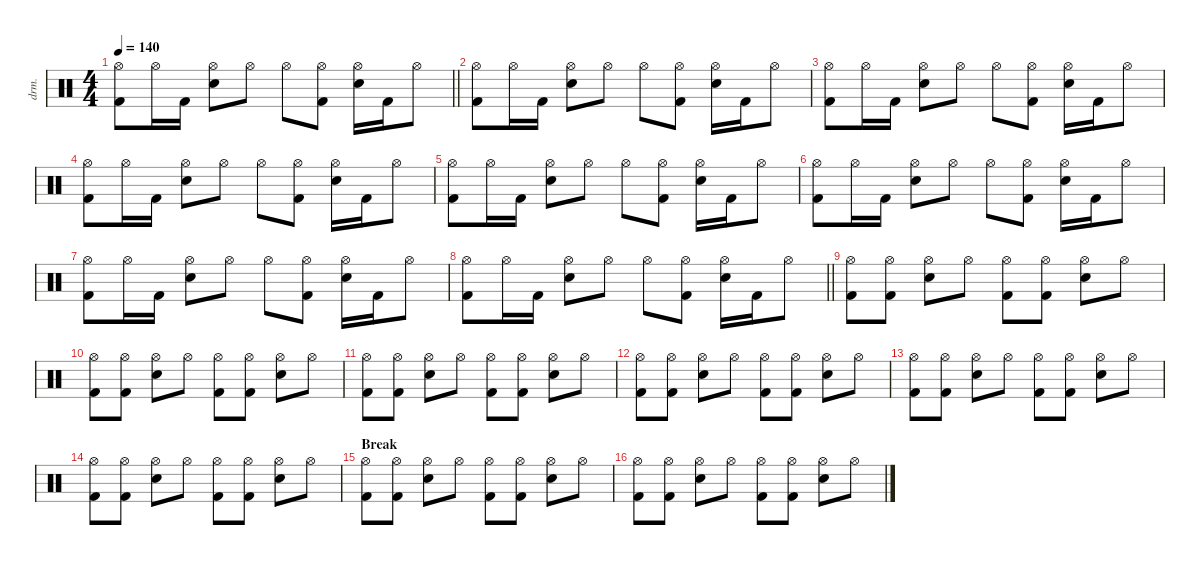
\defaultSystemsLayout 4
\hideDynamics
\bracketExtendMode nobrackets
\otherSystemsTrackNameOrientation horizontal
\track ("Drums" "drm.") {defaultSystemsLayout 4 instrument percussion}
\staff {score}
\articulation defaults
\ts (4 4)
\tempo 140
\clef neutral
\barLineRight lightlight
\ks c
("Hi-Hat (open)" "Kick (hit) 2").8{dy mf beam Down} "Hi-Hat (open)".16{beam Down} "Kick (hit) 2".16{dy f beam Down} ("Hi-Hat (open)" "Snare (hit) 2").8{dy mf beam Down} "Hi-Hat (open)".8{beam Down} "Hi-Hat (open)".8{beam Down} ("Hi-Hat (open)" "Kick (hit) 2").8{beam Down} ("Hi-Hat (open)" "Snare (hit) 2").16{beam Down} "Kick (hit) 2".16{dy f beam Down} "Hi-Hat (open)".8{dy mf beam Down} |
("Hi-Hat (open)" "Kick (hit) 2").8{beam Down} "Hi-Hat (open)".16{beam Down} "Kick (hit) 2".16{dy f beam Down} ("Hi-Hat (open)" "Snare (hit) 2").8{dy mf beam Down} "Hi-Hat (open)".8{beam Down} "Hi-Hat (open)".8{beam Down} ("Hi-Hat (open)" "Kick (hit) 2").8{beam Down} ("Hi-Hat (open)" "Snare (hit) 2").16{beam Down} "Kick (hit) 2".16{dy f beam Down} "Hi-Hat (open)".8{dy mf beam Down} |
("Hi-Hat (open)" "Kick (hit) 2").8{beam Down} "Hi-Hat (open)".16{beam Down} "Kick (hit) 2".16{dy f beam Down} ("Hi-Hat (open)" "Snare (hit) 2").8{dy mf beam Down} "Hi-Hat (open)".8{beam Down} "Hi-Hat (open)".8{beam Down} ("Hi-Hat (open)" "Kick (hit) 2").8{beam Down} ("Hi-Hat (open)" "Snare (hit) 2").16{beam Down} "Kick (hit) 2".16{dy f beam Down} "Hi-Hat (open)".8{dy mf beam Down} |
("Hi-Hat (open)" "Kick (hit) 2").8{beam Down} "Hi-Hat (open)".16{beam Down} "Kick (hit) 2".16{dy f beam Down} ("Hi-Hat (open)" "Snare (hit) 2").8{dy mf beam Down} "Hi-Hat (open)".8{beam Down} "Hi-Hat (open)".8{beam Down} ("Hi-Hat (open)" "Kick (hit) 2").8{beam Down} ("Hi-Hat (open)" "Snare (hit) 2").16{beam Down} "Kick (hit) 2".16{dy f beam Down} "Hi-Hat (open)".8{dy mf beam Down} |
("Hi-Hat (open)" "Kick (hit) 2").8{beam Down} "Hi-Hat (open)".16{beam Down} "Kick (hit) 2".16{dy f beam Down} ("Hi-Hat (open)" "Snare (hit) 2").8{dy mf beam Down} "Hi-Hat (open)".8{beam Down} "Hi-Hat (open)".8{beam Down} ("Hi-Hat (open)" "Kick (hit) 2").8{beam Down} ("Hi-Hat (open)" "Snare (hit) 2").16{beam Down} "Kick (hit) 2".16{dy f beam Down} "Hi-Hat (open)".8{dy mf beam Down} |
("Hi-Hat (open)" "Kick (hit) 2").8{beam Down} "Hi-Hat (open)".16{beam Down} "Kick (hit) 2".16{dy f beam Down} ("Hi-Hat (open)" "Snare (hit) 2").8{dy mf beam Down} "Hi-Hat (open)".8{beam Down} "Hi-Hat (open)".8{beam Down} ("Hi-Hat (open)" "Kick (hit) 2").8{beam Down} ("Hi-Hat (open)" "Snare (hit) 2").16{beam Down} "Kick (hit) 2".16{dy f beam Down} "Hi-Hat (open)".8{dy mf beam Down} |
("Hi-Hat (open)" "Kick (hit) 2").8{beam Down} "Hi-Hat (open)".16{beam Down} "Kick (hit) 2".16{dy f beam Down} ("Hi-Hat (open)" "Snare (hit) 2").8{dy mf beam Down} "Hi-Hat (open)".8{beam Down} "Hi-Hat (open)".8{beam Down} ("Hi-Hat (open)" "Kick (hit) 2").8{beam Down} ("Hi-Hat (open)" "Snare (hit) 2").16{beam Down} "Kick (hit) 2".16{dy f beam Down} "Hi-Hat (open)".8{dy mf beam Down} |
\barLineRight lightlight
("Hi-Hat (open)" "Kick (hit) 2").8{beam Down} "Hi-Hat (open)".16{beam Down} "Kick (hit) 2".16{dy f beam Down} ("Hi-Hat (open)" "Snare (hit) 2").8{dy mf beam Down} "Hi-Hat (open)".8{beam Down} "Hi-Hat (open)".8{beam Down} ("Hi-Hat (open)" "Kick (hit) 2").8{beam Down} ("Hi-Hat (open)" "Snare (hit) 2").16{beam Down} "Kick (hit) 2".16{dy f beam Down} "Hi-Hat (open)".8{dy mf beam Down} |
("Hi-Hat (open)" "Kick (hit) 2").8{beam Down} ("Hi-Hat (open)" "Kick (hit) 2").8{beam Down} ("Hi-Hat (open)" "Snare (hit) 2").8{beam Down} "Hi-Hat (open)".8{beam Down} ("Hi-Hat (open)" "Kick (hit) 2").8{beam Down} ("Hi-Hat (open)" "Kick (hit) 2").8{beam Down} ("Hi-Hat (open)" "Snare (hit) 2").8{beam Down} "Hi-Hat (open)".8{beam Down} |
("Hi-Hat (open)" "Kick (hit) 2").8{beam Down} ("Hi-Hat (open)" "Kick (hit) 2").8{beam Down} ("Hi-Hat (open)" "Snare (hit) 2").8{beam Down} "Hi-Hat (open)".8{beam Down} ("Hi-Hat (open)" "Kick (hit) 2").8{beam Down} ("Hi-Hat (open)" "Kick (hit) 2").8{beam Down} ("Hi-Hat (open)" "Snare (hit) 2").8{beam Down} "Hi-Hat (open)".8{beam Down} |
("Hi-Hat (open)" "Kick (hit) 2").8{beam Down} ("Hi-Hat (open)" "Kick (hit) 2").8{beam Down} ("Hi-Hat (open)" "Snare (hit) 2").8{beam Down} "Hi-Hat (open)".8{beam Down} ("Hi-Hat (open)" "Kick (hit) 2").8{beam Down} ("Hi-Hat (open)" "Kick (hit) 2").8{beam Down} ("Hi-Hat (open)" "Snare (hit) 2").8{beam Down} "Hi-Hat (open)".8{beam Down} |
("Hi-Hat (open)" "Kick (hit) 2").8{beam Down} ("Hi-Hat (open)" "Kick (hit) 2").8{beam Down} ("Hi-Hat (open)" "Snare (hit) 2").8{beam Down} "Hi-Hat (open)".8{beam Down} ("Hi-Hat (open)" "Kick (hit) 2").8{beam Down} ("Hi-Hat (open)" "Kick (hit) 2").8{beam Down} ("Hi-Hat (open)" "Snare (hit) 2").8{beam Down} "Hi-Hat (open)".8{beam Down} |
("Hi-Hat (open)" "Kick (hit) 2").8{beam Down} ("Hi-Hat (open)" "Kick (hit) 2").8{beam Down} ("Hi-Hat (open)" "Snare (hit) 2").8{beam Down} "Hi-Hat (open)".8{beam Down} ("Hi-Hat (open)" "Kick (hit) 2").8{beam Down} ("Hi-Hat (open)" "Kick (hit) 2").8{beam Down} ("Hi-Hat (open)" "Snare (hit) 2").8{beam Down} "Hi-Hat (open)".8{beam Down} |
("Hi-Hat (open)" "Kick (hit) 2").8{beam Down} ("Hi-Hat (open)" "Kick (hit) 2").8{beam Down} ("Hi-Hat (open)" "Snare (hit) 2").8{beam Down} "Hi-Hat (open)".8{beam Down} ("Hi-Hat (open)" "Kick (hit) 2").8{beam Down} ("Hi-Hat (open)" "Kick (hit) 2").8{beam Down} ("Hi-Hat (open)" "Snare (hit) 2").8{beam Down} "Hi-Hat (open)".8{beam Down} |
\section ("" "Break")
("Hi-Hat (open)" "Kick (hit) 2").8{beam Down} ("Hi-Hat (open)" "Kick (hit) 2").8{beam Down} ("Hi-Hat (open)" "Snare (hit) 2").8{beam Down} "Hi-Hat (open)".8{beam Down} ("Hi-Hat (open)" "Kick (hit) 2").8{beam Down} ("Hi-Hat (open)" "Kick (hit) 2").8{beam Down} ("Hi-Hat (open)" "Snare (hit) 2").8{beam Down} "Hi-Hat (open)".8{beam Down} |
("Hi-Hat (open)" "Kick (hit) 2").8{beam Down} ("Hi-Hat (open)" "Kick (hit) 2").8{beam Down} ("Hi-Hat (open)" "Snare (hit) 2").8{beam Down} "Hi-Hat (open)".8{beam Down} ("Hi-Hat (open)" "Kick (hit) 2").8{beam Down} ("Hi-Hat (open)" "Kick (hit) 2").8{beam Down} ("Hi-Hat (open)" "Snare (hit) 2").8{beam Down} "Hi-Hat (open)".8{beam Down}
